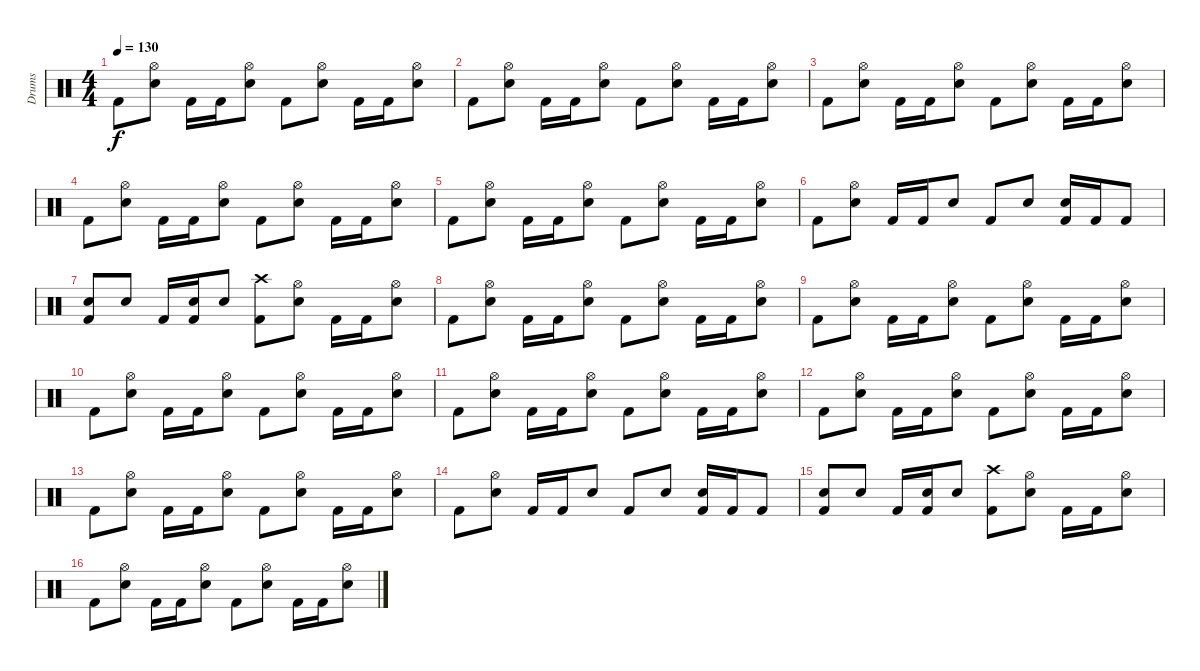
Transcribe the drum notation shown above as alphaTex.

\track ("Drums" "Drums") {instrument percussion}
\staff {score}
\articulation defaults
\ts (4 4)
\tempo 130
\clef neutral
\ks c "Kick (hit) 2".8{dy f}
("Hi-Hat (open)" "Snare (hit) 2").8 "Kick (hit) 2".16 "Kick (hit) 2".16 ("Hi-Hat (open)" "Snare (hit) 2").8 "Kick (hit) 2".8 ("Hi-Hat (open)" "Snare (hit) 2").8 "Kick (hit) 2".16 "Kick (hit) 2".16 ("Hi-Hat (open)" "Snare (hit) 2").8 |
"Kick (hit) 2".8 ("Hi-Hat (open)" "Snare (hit) 2").8 "Kick (hit) 2".16 "Kick (hit) 2".16 ("Hi-Hat (open)" "Snare (hit) 2").8 "Kick (hit) 2".8 ("Hi-Hat (open)" "Snare (hit) 2").8 "Kick (hit) 2".16 "Kick (hit) 2".16 ("Hi-Hat (open)" "Snare (hit) 2").8 |
"Kick (hit) 2".8 ("Hi-Hat (open)" "Snare (hit) 2").8 "Kick (hit) 2".16 "Kick (hit) 2".16 ("Hi-Hat (open)" "Snare (hit) 2").8 "Kick (hit) 2".8 ("Hi-Hat (open)" "Snare (hit) 2").8 "Kick (hit) 2".16 "Kick (hit) 2".16 ("Hi-Hat (open)" "Snare (hit) 2").8 |
"Kick (hit) 2".8 ("Hi-Hat (open)" "Snare (hit) 2").8 "Kick (hit) 2".16 "Kick (hit) 2".16 ("Hi-Hat (open)" "Snare (hit) 2").8 "Kick (hit) 2".8 ("Hi-Hat (open)" "Snare (hit) 2").8 "Kick (hit) 2".16 "Kick (hit) 2".16 ("Hi-Hat (open)" "Snare (hit) 2").8 |
"Kick (hit) 2".8 ("Hi-Hat (open)" "Snare (hit) 2").8 "Kick (hit) 2".16 "Kick (hit) 2".16 ("Hi-Hat (open)" "Snare (hit) 2").8 "Kick (hit) 2".8 ("Hi-Hat (open)" "Snare (hit) 2").8 "Kick (hit) 2".16 "Kick (hit) 2".16 ("Hi-Hat (open)" "Snare (hit) 2").8 |
"Kick (hit) 2".8 ("Hi-Hat (open)" "Snare (hit) 2").8 "Kick (hit) 2".16 "Kick (hit) 2".16 "Snare (hit) 2".8 "Kick (hit) 2".8 "Snare (hit) 2".8 ("Snare (hit) 2" "Kick (hit) 2").16 "Kick (hit) 2".16 "Kick (hit) 2".8 |
("Snare (hit) 2" "Kick (hit) 2").8 "Snare (hit) 2".8 "Kick (hit) 2".16 ("Snare (hit) 2" "Kick (hit) 2").16 "Snare (hit) 2".8 ("Crash high (hit)" "Kick (hit) 2").8 ("Hi-Hat (open)" "Snare (hit) 2").8 "Kick (hit) 2".16 "Kick (hit) 2".16 ("Hi-Hat (open)" "Snare (hit) 2").8 |
"Kick (hit) 2".8 ("Hi-Hat (open)" "Snare (hit) 2").8 "Kick (hit) 2".16 "Kick (hit) 2".16 ("Hi-Hat (open)" "Snare (hit) 2").8 "Kick (hit) 2".8 ("Hi-Hat (open)" "Snare (hit) 2").8 "Kick (hit) 2".16 "Kick (hit) 2".16 ("Hi-Hat (open)" "Snare (hit) 2").8 |
"Kick (hit) 2".8 ("Hi-Hat (open)" "Snare (hit) 2").8 "Kick (hit) 2".16 "Kick (hit) 2".16 ("Hi-Hat (open)" "Snare (hit) 2").8 "Kick (hit) 2".8 ("Hi-Hat (open)" "Snare (hit) 2").8 "Kick (hit) 2".16 "Kick (hit) 2".16 ("Hi-Hat (open)" "Snare (hit) 2").8 |
"Kick (hit) 2".8 ("Hi-Hat (open)" "Snare (hit) 2").8 "Kick (hit) 2".16 "Kick (hit) 2".16 ("Hi-Hat (open)" "Snare (hit) 2").8 "Kick (hit) 2".8 ("Hi-Hat (open)" "Snare (hit) 2").8 "Kick (hit) 2".16 "Kick (hit) 2".16 ("Hi-Hat (open)" "Snare (hit) 2").8 |
"Kick (hit) 2".8 ("Hi-Hat (open)" "Snare (hit) 2").8 "Kick (hit) 2".16 "Kick (hit) 2".16 ("Hi-Hat (open)" "Snare (hit) 2").8 "Kick (hit) 2".8 ("Hi-Hat (open)" "Snare (hit) 2").8 "Kick (hit) 2".16 "Kick (hit) 2".16 ("Hi-Hat (open)" "Snare (hit) 2").8 |
"Kick (hit) 2".8 ("Hi-Hat (open)" "Snare (hit) 2").8 "Kick (hit) 2".16 "Kick (hit) 2".16 ("Hi-Hat (open)" "Snare (hit) 2").8 "Kick (hit) 2".8 ("Hi-Hat (open)" "Snare (hit) 2").8 "Kick (hit) 2".16 "Kick (hit) 2".16 ("Hi-Hat (open)" "Snare (hit) 2").8 |
"Kick (hit) 2".8 ("Hi-Hat (open)" "Snare (hit) 2").8 "Kick (hit) 2".16 "Kick (hit) 2".16 ("Hi-Hat (open)" "Snare (hit) 2").8 "Kick (hit) 2".8 ("Hi-Hat (open)" "Snare (hit) 2").8 "Kick (hit) 2".16 "Kick (hit) 2".16 ("Hi-Hat (open)" "Snare (hit) 2").8 |
"Kick (hit) 2".8 ("Hi-Hat (open)" "Snare (hit) 2").8 "Kick (hit) 2".16 "Kick (hit) 2".16 "Snare (hit) 2".8 "Kick (hit) 2".8 "Snare (hit) 2".8 ("Snare (hit) 2" "Kick (hit) 2").16 "Kick (hit) 2".16 "Kick (hit) 2".8 |
("Snare (hit) 2" "Kick (hit) 2").8 "Snare (hit) 2".8 "Kick (hit) 2".16 ("Snare (hit) 2" "Kick (hit) 2").16 "Snare (hit) 2".8 ("Crash high (hit)" "Kick (hit) 2").8 ("Hi-Hat (open)" "Snare (hit) 2").8 "Kick (hit) 2".16 "Kick (hit) 2".16 ("Hi-Hat (open)" "Snare (hit) 2").8 |
"Kick (hit) 2".8 ("Hi-Hat (open)" "Snare (hit) 2").8 "Kick (hit) 2".16 "Kick (hit) 2".16 ("Hi-Hat (open)" "Snare (hit) 2").8 "Kick (hit) 2".8 ("Hi-Hat (open)" "Snare (hit) 2").8 "Kick (hit) 2".16 "Kick (hit) 2".16 ("Hi-Hat (open)" "Snare (hit) 2").8
